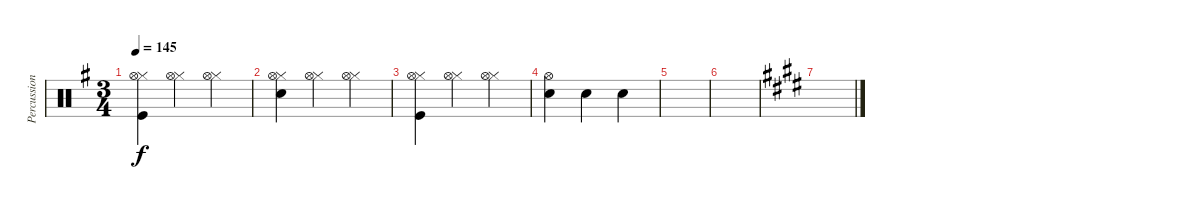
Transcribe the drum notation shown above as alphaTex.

\track ("Percussioni" "Percussion") {instrument percussion}
\staff {score}
\articulation defaults
\ts (3 4)
\tempo 145
\clef neutral
\ks g
("Hi-Hat (closed)" "Kick (hit)" "Hi-Hat (open)").4{dy f} ("Hi-Hat (closed)" "Hi-Hat (open)").4 ("Hi-Hat (closed)" "Hi-Hat (open)").4 |
("Hi-Hat (closed)" "Snare (hit) 2" "Hi-Hat (open)").4 ("Hi-Hat (closed)" "Hi-Hat (open)").4 ("Hi-Hat (closed)" "Hi-Hat (open)").4 |
("Hi-Hat (closed)" "Kick (hit)" "Hi-Hat (open)").4 ("Hi-Hat (closed)" "Hi-Hat (open)").4 ("Hi-Hat (closed)" "Hi-Hat (open)").4 |
("Electric Snare (hit)" "Hi-Hat (open)").4 "Electric Snare (hit)".4 "Electric Snare (hit)".4 |
|
|
\ks e
